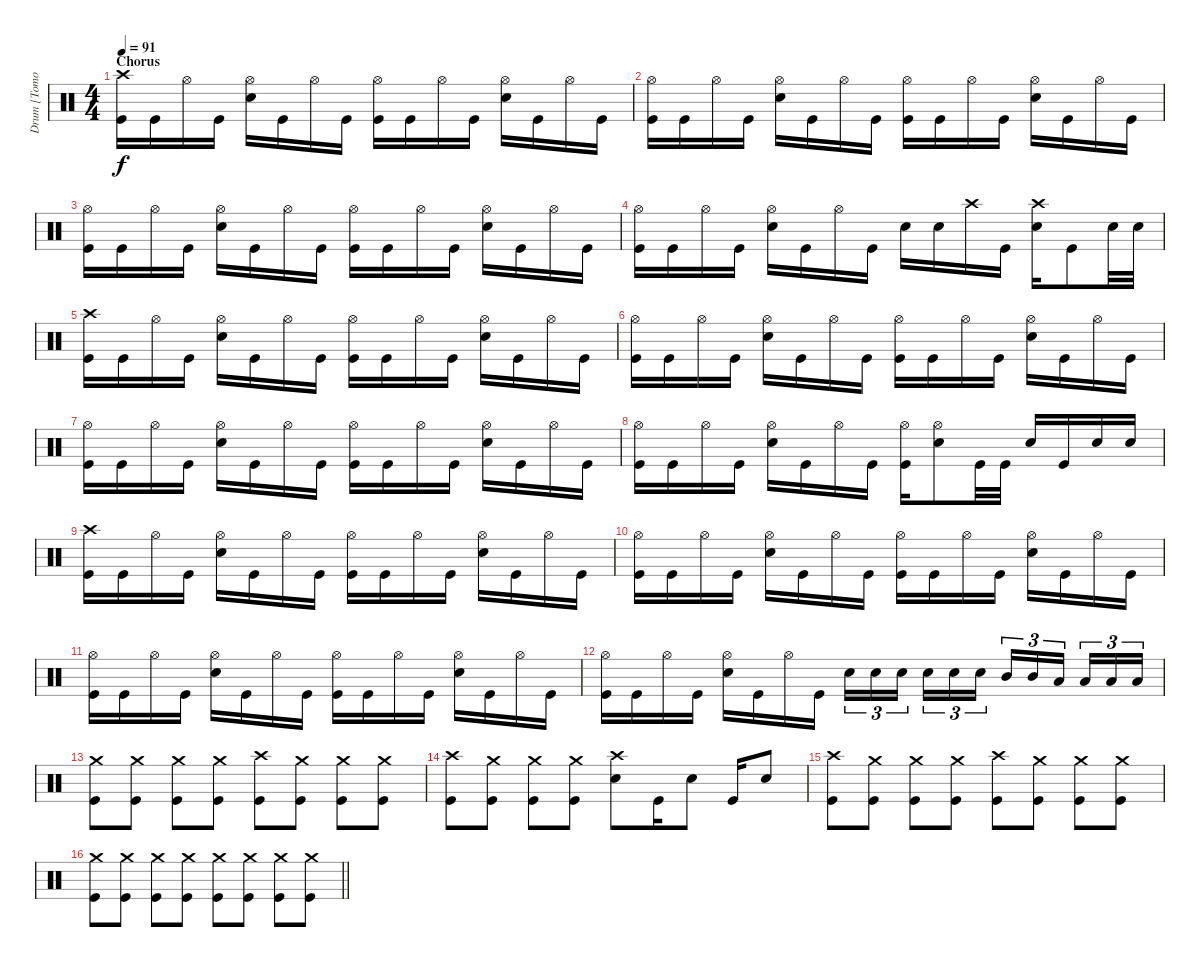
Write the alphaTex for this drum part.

\track ("Drum [Tomoya]" "Drum [Tomo") {instrument percussion}
\staff {score}
\articulation defaults
\ts (4 4)
\section ("" "Chorus")
\tempo 91
\clef neutral
\ks c
("Crash high (hit)" "Kick (hit)").16{dy f} "Kick (hit)".16 "Hi-Hat (open)".16 "Kick (hit)".16 ("Hi-Hat (open)" "Snare (hit) 2").16 "Kick (hit)".16 "Hi-Hat (open)".16 "Kick (hit)".16 ("Hi-Hat (open)" "Kick (hit)").16 "Kick (hit)".16 "Hi-Hat (open)".16 "Kick (hit)".16 ("Hi-Hat (open)" "Snare (hit) 2").16 "Kick (hit)".16 "Hi-Hat (open)".16 "Kick (hit)".16 |
("Hi-Hat (open)" "Kick (hit)").16 "Kick (hit)".16 "Hi-Hat (open)".16 "Kick (hit)".16 ("Hi-Hat (open)" "Snare (hit) 2").16 "Kick (hit)".16 "Hi-Hat (open)".16 "Kick (hit)".16 ("Hi-Hat (open)" "Kick (hit)").16 "Kick (hit)".16 "Hi-Hat (open)".16 "Kick (hit)".16 ("Hi-Hat (open)" "Snare (hit) 2").16 "Kick (hit)".16 "Hi-Hat (open)".16 "Kick (hit)".16 |
("Hi-Hat (open)" "Kick (hit)").16 "Kick (hit)".16 "Hi-Hat (open)".16 "Kick (hit)".16 ("Hi-Hat (open)" "Snare (hit) 2").16 "Kick (hit)".16 "Hi-Hat (open)".16 "Kick (hit)".16 ("Hi-Hat (open)" "Kick (hit)").16 "Kick (hit)".16 "Hi-Hat (open)".16 "Kick (hit)".16 ("Hi-Hat (open)" "Snare (hit) 2").16 "Kick (hit)".16 "Hi-Hat (open)".16 "Kick (hit)".16 |
("Hi-Hat (open)" "Kick (hit)").16 "Kick (hit)".16 "Hi-Hat (open)".16 "Kick (hit)".16 ("Hi-Hat (open)" "Snare (hit) 2").16 "Kick (hit)".16 "Hi-Hat (open)".16 "Kick (hit)".16 "Snare (hit) 2".16 "Snare (hit) 2".16 "Crash high (hit)".16 "Kick (hit)".16 ("Snare (hit) 2" "Crash high (hit)").16 "Kick (hit)".8 "Snare (hit) 2".32 "Snare (hit) 2".32 |
("Crash high (hit)" "Kick (hit)").16 "Kick (hit)".16 "Hi-Hat (open)".16 "Kick (hit)".16 ("Hi-Hat (open)" "Snare (hit) 2").16 "Kick (hit)".16 "Hi-Hat (open)".16 "Kick (hit)".16 ("Hi-Hat (open)" "Kick (hit)").16 "Kick (hit)".16 "Hi-Hat (open)".16 "Kick (hit)".16 ("Hi-Hat (open)" "Snare (hit) 2").16 "Kick (hit)".16 "Hi-Hat (open)".16 "Kick (hit)".16 |
("Hi-Hat (open)" "Kick (hit)").16 "Kick (hit)".16 "Hi-Hat (open)".16 "Kick (hit)".16 ("Hi-Hat (open)" "Snare (hit) 2").16 "Kick (hit)".16 "Hi-Hat (open)".16 "Kick (hit)".16 ("Hi-Hat (open)" "Kick (hit)").16 "Kick (hit)".16 "Hi-Hat (open)".16 "Kick (hit)".16 ("Hi-Hat (open)" "Snare (hit) 2").16 "Kick (hit)".16 "Hi-Hat (open)".16 "Kick (hit)".16 |
("Hi-Hat (open)" "Kick (hit)").16 "Kick (hit)".16 "Hi-Hat (open)".16 "Kick (hit)".16 ("Hi-Hat (open)" "Snare (hit) 2").16 "Kick (hit)".16 "Hi-Hat (open)".16 "Kick (hit)".16 ("Hi-Hat (open)" "Kick (hit)").16 "Kick (hit)".16 "Hi-Hat (open)".16 "Kick (hit)".16 ("Hi-Hat (open)" "Snare (hit) 2").16 "Kick (hit)".16 "Hi-Hat (open)".16 "Kick (hit)".16 |
("Hi-Hat (open)" "Kick (hit)").16 "Kick (hit)".16 "Hi-Hat (open)".16 "Kick (hit)".16 ("Hi-Hat (open)" "Snare (hit) 2").16 "Kick (hit)".16 "Hi-Hat (open)".16 "Kick (hit)".16 ("Hi-Hat (open)" "Kick (hit)").16 ("Hi-Hat (open)" "Snare (hit) 2").8 "Kick (hit)".32 "Kick (hit)".32 "Snare (hit) 2".16 "Kick (hit)".16 "Snare (hit) 2".16 "Snare (hit) 2".16 |
("Crash high (hit)" "Kick (hit)").16 "Kick (hit)".16 "Hi-Hat (open)".16 "Kick (hit)".16 ("Hi-Hat (open)" "Snare (hit) 2").16 "Kick (hit)".16 "Hi-Hat (open)".16 "Kick (hit)".16 ("Hi-Hat (open)" "Kick (hit)").16 "Kick (hit)".16 "Hi-Hat (open)".16 "Kick (hit)".16 ("Hi-Hat (open)" "Snare (hit) 2").16 "Kick (hit)".16 "Hi-Hat (open)".16 "Kick (hit)".16 |
("Hi-Hat (open)" "Kick (hit)").16 "Kick (hit)".16 "Hi-Hat (open)".16 "Kick (hit)".16 ("Hi-Hat (open)" "Snare (hit) 2").16 "Kick (hit)".16 "Hi-Hat (open)".16 "Kick (hit)".16 ("Hi-Hat (open)" "Kick (hit)").16 "Kick (hit)".16 "Hi-Hat (open)".16 "Kick (hit)".16 ("Hi-Hat (open)" "Snare (hit) 2").16 "Kick (hit)".16 "Hi-Hat (open)".16 "Kick (hit)".16 |
("Hi-Hat (open)" "Kick (hit)").16 "Kick (hit)".16 "Hi-Hat (open)".16 "Kick (hit)".16 ("Hi-Hat (open)" "Snare (hit) 2").16 "Kick (hit)".16 "Hi-Hat (open)".16 "Kick (hit)".16 ("Hi-Hat (open)" "Kick (hit)").16 "Kick (hit)".16 "Hi-Hat (open)".16 "Kick (hit)".16 ("Hi-Hat (open)" "Snare (hit) 2").16 "Kick (hit)".16 "Hi-Hat (open)".16 "Kick (hit)".16 |
("Hi-Hat (open)" "Kick (hit)").16 "Kick (hit)".16 "Hi-Hat (open)".16 "Kick (hit)".16 ("Hi-Hat (open)" "Snare (hit) 2").16 "Kick (hit)".16 "Hi-Hat (open)".16 "Kick (hit)".16 "Snare (hit) 2".16{tu (3 2)} "Snare (hit) 2".16{tu (3 2)} "Snare (hit) 2".16{tu (3 2)} "Snare (hit) 2".16{tu (3 2)} "Snare (hit) 2".16{tu (3 2)} "Snare (hit) 2".16{tu (3 2)} "Mid Tom (hit)".16{tu (3 2)} "Mid Tom (hit)".16{tu (3 2)} "Low Tom (hit)".16{tu (3 2)} "Low Tom (hit)".16{tu (3 2)} "Low Floor Tom (hit)".16{tu (3 2)} "Low Floor Tom (hit)".16{tu (3 2)} |
("Kick (hit)" "Crash medium (hit)").8 ("Kick (hit)" "Crash medium (hit)").8 ("Kick (hit)" "Crash medium (hit)").8 ("Kick (hit)" "Crash medium (hit)").8 ("Kick (hit)" "Crash high (hit)").8 ("Kick (hit)" "Crash medium (hit)").8 ("Kick (hit)" "Crash medium (hit)").8 ("Kick (hit)" "Crash medium (hit)").8 |
("Crash high (hit)" "Kick (hit)").8 ("Crash medium (hit)" "Kick (hit)").8 ("Crash medium (hit)" "Kick (hit)").8 ("Crash medium (hit)" "Kick (hit)").8 ("Crash high (hit)" "Snare (hit) 2").8 "Kick (hit)".16 "Snare (hit) 2".8 "Kick (hit)".16 "Snare (hit) 2".8 |
("Kick (hit)" "Crash high (hit)").8 ("Kick (hit)" "Crash medium (hit)").8 ("Kick (hit)" "Crash medium (hit)").8 ("Kick (hit)" "Crash medium (hit)").8 ("Kick (hit)" "Crash high (hit)").8 ("Kick (hit)" "Crash medium (hit)").8 ("Kick (hit)" "Crash medium (hit)").8 ("Kick (hit)" "Crash medium (hit)").8 |
\barLineRight lightlight
("Kick (hit)" "Crash medium (hit)").8 ("Kick (hit)" "Crash medium (hit)").8 ("Kick (hit)" "Crash medium (hit)").8 ("Kick (hit)" "Crash medium (hit)").8 ("Kick (hit)" "Crash medium (hit)").8 ("Kick (hit)" "Crash medium (hit)").8 ("Kick (hit)" "Crash medium (hit)").8 ("Kick (hit)" "Crash medium (hit)").8
